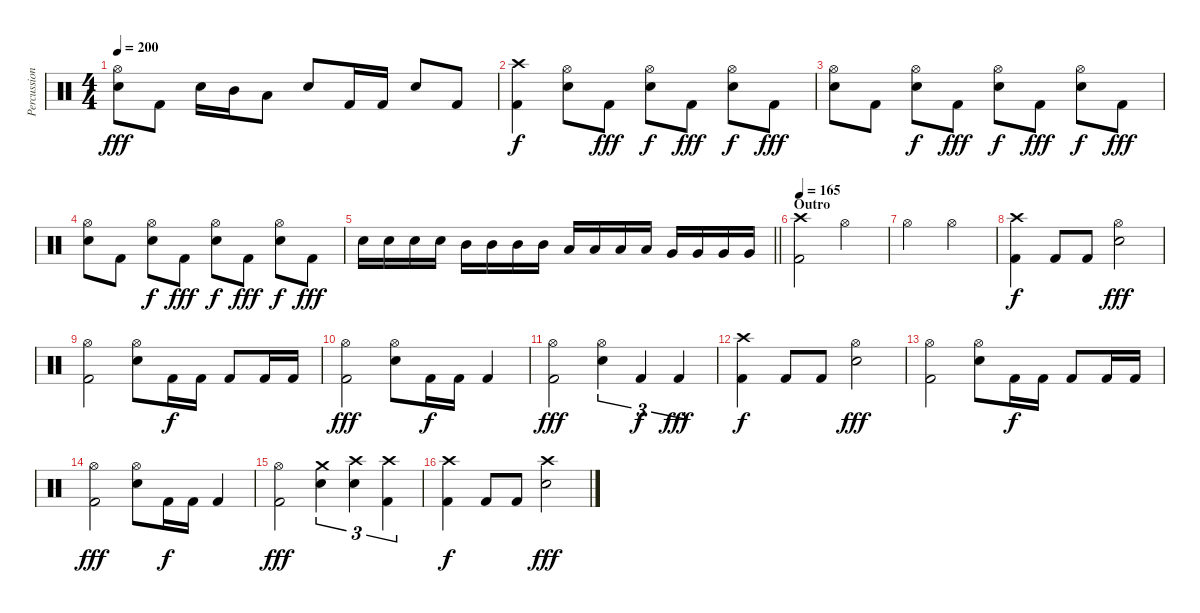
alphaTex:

\track ("Percussion" "Percussion") {instrument percussion}
\staff {score}
\articulation defaults
\ts (4 4)
\tempo 200
\clef neutral
\ks c
("Hi-Hat (open)" "Electric Snare (hit)").8{dy fff} "Kick (hit) 2".8 "Electric Snare (hit)".16 "Mid Tom (hit)".16 "Low Tom (hit)".8 "Electric Snare (hit)".8 "Kick (hit) 2".16 "Kick (hit) 2".16 "Electric Snare (hit)".8 "Kick (hit) 2".8 |
("Crash high (hit)" "Kick (hit) 2").4{dy f} ("Hi-Hat (open)" "Electric Snare (hit)").8 "Kick (hit) 2".8{dy fff} ("Hi-Hat (open)" "Electric Snare (hit)").8{dy f} "Kick (hit) 2".8{dy fff} ("Hi-Hat (open)" "Electric Snare (hit)").8{dy f} "Kick (hit) 2".8{dy fff} |
("Hi-Hat (open)" "Electric Snare (hit)").8 "Kick (hit) 2".8 ("Hi-Hat (open)" "Electric Snare (hit)").8{dy f} "Kick (hit) 2".8{dy fff} ("Hi-Hat (open)" "Electric Snare (hit)").8{dy f} "Kick (hit) 2".8{dy fff} ("Hi-Hat (open)" "Electric Snare (hit)").8{dy f} "Kick (hit) 2".8{dy fff} |
("Hi-Hat (open)" "Electric Snare (hit)").8 "Kick (hit) 2".8 ("Hi-Hat (open)" "Electric Snare (hit)").8{dy f} "Kick (hit) 2".8{dy fff} ("Hi-Hat (open)" "Electric Snare (hit)").8{dy f} "Kick (hit) 2".8{dy fff} ("Hi-Hat (open)" "Electric Snare (hit)").8{dy f} "Kick (hit) 2".8{dy fff} |
\barLineRight lightlight "Electric Snare (hit)".16 "Electric Snare (hit)".16 "Electric Snare (hit)".16 "Electric Snare (hit)".16 "Mid Tom (hit)".16 "Mid Tom (hit)".16 "Mid Tom (hit)".16 "Mid Tom (hit)".16 "Low Tom (hit)".16 "Low Tom (hit)".16 "Low Tom (hit)".16 "Low Tom (hit)".16 "Very Low Tom (hit)".16 "Very Low Tom (hit)".16 "Very Low Tom (hit)".16 "Very Low Tom (hit)".16
|
\section ("" "Outro")
\tempo 165
("Crash high (hit)" "Kick (hit) 2").2 "Hi-Hat (open)".2 |
"Hi-Hat (open)".2 "Hi-Hat (open)".2 |
("Crash high (hit)" "Kick (hit) 2").4{dy f} "Kick (hit) 2".8 "Kick (hit) 2".8 ("Hi-Hat (open)" "Electric Snare (hit)").2{dy fff} |
("Hi-Hat (open)" "Kick (hit) 2").2 ("Hi-Hat (open)" "Electric Snare (hit)").8 "Kick (hit) 2".16{dy f} "Kick (hit) 2".16 "Kick (hit) 2".8 "Kick (hit) 2".16 "Kick (hit) 2".16 |
("Hi-Hat (open)" "Kick (hit) 2").2{dy fff} ("Hi-Hat (open)" "Electric Snare (hit)").8 "Kick (hit) 2".16{dy f} "Kick (hit) 2".16 "Kick (hit) 2".4 |
("Hi-Hat (open)" "Kick (hit) 2").2{dy fff} ("Hi-Hat (open)" "Electric Snare (hit)").4{tu (3 2)} "Kick (hit) 2".4{tu (3 2) dy f} "Kick (hit) 2".4{tu (3 2) dy fff} |
("Crash high (hit)" "Kick (hit) 2").4{dy f} "Kick (hit) 2".8 "Kick (hit) 2".8 ("Hi-Hat (open)" "Electric Snare (hit)").2{dy fff} |
("Hi-Hat (open)" "Kick (hit) 2").2 ("Hi-Hat (open)" "Electric Snare (hit)").8 "Kick (hit) 2".16{dy f} "Kick (hit) 2".16 "Kick (hit) 2".8 "Kick (hit) 2".16 "Kick (hit) 2".16 |
("Hi-Hat (open)" "Kick (hit) 2").2{dy fff} ("Hi-Hat (open)" "Electric Snare (hit)").8 "Kick (hit) 2".16{dy f} "Kick (hit) 2".16 "Kick (hit) 2".4 |
("Hi-Hat (open)" "Kick (hit) 2").2{dy fff} ("Crash medium (hit)" "Electric Snare (hit)").4{tu (3 2)} ("Crash high (hit)" "Electric Snare (hit)").4{tu (3 2)} ("Crash high (hit)" "Kick (hit) 2").4{tu (3 2)} |
("Crash high (hit)" "Kick (hit) 2").4{dy f} "Kick (hit) 2".8 "Kick (hit) 2".8 ("Crash high (hit)" "Electric Snare (hit)").2{dy fff}
